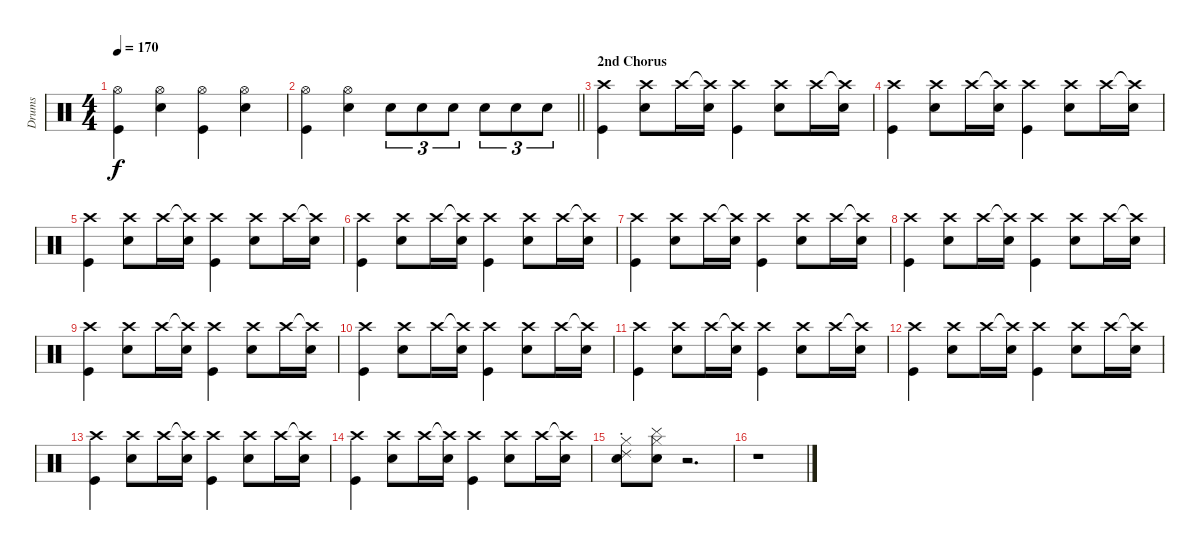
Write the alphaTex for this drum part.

\track ("Drums" "Drums") {instrument percussion}
\staff {score}
\articulation defaults
\ts (4 4)
\tempo 170
\clef neutral
\ks c
("Hi-Hat (open)" "Kick (hit)").4{dy f} ("Hi-Hat (open)" "Snare (hit) 2").4 ("Hi-Hat (open)" "Kick (hit)").4 ("Hi-Hat (open)" "Snare (hit) 2").4 |
\barLineRight lightlight
("Hi-Hat (open)" "Kick (hit)").4 ("Hi-Hat (open)" "Snare (hit) 2").4 "Snare (hit) 2".8{tu (3 2)} "Snare (hit) 2".8{tu (3 2)} "Snare (hit) 2".8{tu (3 2)} "Snare (hit) 2".8{tu (3 2)} "Snare (hit) 2".8{tu (3 2)} "Snare (hit) 2".8{tu (3 2)} |
\section ("" "2nd Chorus")
("Crash high (hit)" "Kick (hit)").4 ("Crash high (hit)" "Snare (hit) 2").8 "Crash high (hit)".16 ("Crash high (hit)"{t} "Snare (hit) 2").16 ("Crash high (hit)" "Kick (hit)").4 ("Crash high (hit)" "Snare (hit) 2").8 "Crash high (hit)".16 ("Crash high (hit)"{t} "Snare (hit) 2").16 |
("Crash high (hit)" "Kick (hit)").4 ("Crash high (hit)" "Snare (hit) 2").8 "Crash high (hit)".16 ("Crash high (hit)"{t} "Snare (hit) 2").16 ("Crash high (hit)" "Kick (hit)").4 ("Crash high (hit)" "Snare (hit) 2").8 "Crash high (hit)".16 ("Crash high (hit)"{t} "Snare (hit) 2").16 |
("Crash high (hit)" "Kick (hit)").4 ("Crash high (hit)" "Snare (hit) 2").8 "Crash high (hit)".16 ("Crash high (hit)"{t} "Snare (hit) 2").16 ("Crash high (hit)" "Kick (hit)").4 ("Crash high (hit)" "Snare (hit) 2").8 "Crash high (hit)".16 ("Crash high (hit)"{t} "Snare (hit) 2").16 |
("Crash high (hit)" "Kick (hit)").4 ("Crash high (hit)" "Snare (hit) 2").8 "Crash high (hit)".16 ("Crash high (hit)"{t} "Snare (hit) 2").16 ("Crash high (hit)" "Kick (hit)").4 ("Crash high (hit)" "Snare (hit) 2").8 "Crash high (hit)".16 ("Crash high (hit)"{t} "Snare (hit) 2").16 |
("Crash high (hit)" "Kick (hit)").4 ("Crash high (hit)" "Snare (hit) 2").8 "Crash high (hit)".16 ("Crash high (hit)"{t} "Snare (hit) 2").16 ("Crash high (hit)" "Kick (hit)").4 ("Crash high (hit)" "Snare (hit) 2").8 "Crash high (hit)".16 ("Crash high (hit)"{t} "Snare (hit) 2").16 |
("Crash high (hit)" "Kick (hit)").4 ("Crash high (hit)" "Snare (hit) 2").8 "Crash high (hit)".16 ("Crash high (hit)"{t} "Snare (hit) 2").16 ("Crash high (hit)" "Kick (hit)").4 ("Crash high (hit)" "Snare (hit) 2").8 "Crash high (hit)".16 ("Crash high (hit)"{t} "Snare (hit) 2").16 |
("Crash high (hit)" "Kick (hit)").4 ("Crash high (hit)" "Snare (hit) 2").8 "Crash high (hit)".16 ("Crash high (hit)"{t} "Snare (hit) 2").16 ("Crash high (hit)" "Kick (hit)").4 ("Crash high (hit)" "Snare (hit) 2").8 "Crash high (hit)".16 ("Crash high (hit)"{t} "Snare (hit) 2").16 |
("Crash high (hit)" "Kick (hit)").4 ("Crash high (hit)" "Snare (hit) 2").8 "Crash high (hit)".16 ("Crash high (hit)"{t} "Snare (hit) 2").16 ("Crash high (hit)" "Kick (hit)").4 ("Crash high (hit)" "Snare (hit) 2").8 "Crash high (hit)".16 ("Crash high (hit)"{t} "Snare (hit) 2").16 |
("Crash high (hit)" "Kick (hit)").4 ("Crash high (hit)" "Snare (hit) 2").8 "Crash high (hit)".16 ("Crash high (hit)"{t} "Snare (hit) 2").16 ("Crash high (hit)" "Kick (hit)").4 ("Crash high (hit)" "Snare (hit) 2").8 "Crash high (hit)".16 ("Crash high (hit)"{t} "Snare (hit) 2").16 |
("Crash high (hit)" "Kick (hit)").4 ("Crash high (hit)" "Snare (hit) 2").8 "Crash high (hit)".16 ("Crash high (hit)"{t} "Snare (hit) 2").16 ("Crash high (hit)" "Kick (hit)").4 ("Crash high (hit)" "Snare (hit) 2").8 "Crash high (hit)".16 ("Crash high (hit)"{t} "Snare (hit) 2").16 |
("Crash high (hit)" "Kick (hit)").4 ("Crash high (hit)" "Snare (hit) 2").8 "Crash high (hit)".16 ("Crash high (hit)"{t} "Snare (hit) 2").16 ("Crash high (hit)" "Kick (hit)").4 ("Crash high (hit)" "Snare (hit) 2").8 "Crash high (hit)".16 ("Crash high (hit)"{t} "Snare (hit) 2").16 |
("Crash high (hit)" "Kick (hit)").4 ("Crash high (hit)" "Snare (hit) 2").8 "Crash high (hit)".16 ("Crash high (hit)"{t} "Snare (hit) 2").16 ("Crash high (hit)" "Kick (hit)").4 ("Crash high (hit)" "Snare (hit) 2").8 "Crash high (hit)".16 ("Crash high (hit)"{t} "Snare (hit) 2").16 |
("Hi-Hat (closed)" "Snare (hit) 2" "Ride (choke) 2").8 ("Hi-Hat (closed)" "Snare (hit) 2" "Cymbal (hit)").8 r.2{d} |
r.1
